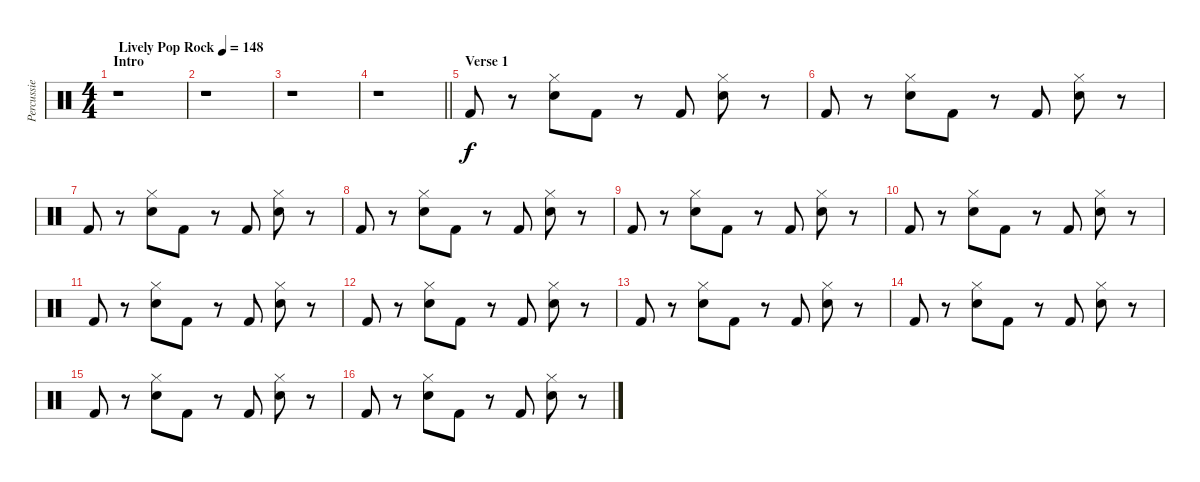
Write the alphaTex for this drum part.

\track ("Percussie" "Percussie") {instrument percussion}
\staff {score}
\articulation defaults
\ts (4 4)
\section ("" "Intro")
\tempo (148 "Lively Pop Rock")
\clef neutral
\ks c
r.1{dy f} |
r.1 |
r.1 |
\barLineRight lightlight
r.1 |
\section ("" "Verse 1")
"Kick (hit) 2".8 r.8 ("Hi-Hat (closed)" "Electric Snare (hit)").8 "Kick (hit) 2".8 r.8 "Kick (hit) 2".8 ("Hi-Hat (closed)" "Electric Snare (hit)").8 r.8 |
"Kick (hit) 2".8 r.8 ("Hi-Hat (closed)" "Electric Snare (hit)").8 "Kick (hit) 2".8 r.8 "Kick (hit) 2".8 ("Hi-Hat (closed)" "Electric Snare (hit)").8 r.8 |
"Kick (hit) 2".8 r.8 ("Hi-Hat (closed)" "Electric Snare (hit)").8 "Kick (hit) 2".8 r.8 "Kick (hit) 2".8 ("Hi-Hat (closed)" "Electric Snare (hit)").8 r.8 |
"Kick (hit) 2".8 r.8 ("Hi-Hat (closed)" "Electric Snare (hit)").8 "Kick (hit) 2".8 r.8 "Kick (hit) 2".8 ("Hi-Hat (closed)" "Electric Snare (hit)").8 r.8 |
"Kick (hit) 2".8 r.8 ("Hi-Hat (closed)" "Electric Snare (hit)").8 "Kick (hit) 2".8 r.8 "Kick (hit) 2".8 ("Hi-Hat (closed)" "Electric Snare (hit)").8 r.8 |
"Kick (hit) 2".8 r.8 ("Hi-Hat (closed)" "Electric Snare (hit)").8 "Kick (hit) 2".8 r.8 "Kick (hit) 2".8 ("Hi-Hat (closed)" "Electric Snare (hit)").8 r.8 |
"Kick (hit) 2".8 r.8 ("Hi-Hat (closed)" "Electric Snare (hit)").8 "Kick (hit) 2".8 r.8 "Kick (hit) 2".8 ("Hi-Hat (closed)" "Electric Snare (hit)").8 r.8 |
"Kick (hit) 2".8 r.8 ("Hi-Hat (closed)" "Electric Snare (hit)").8 "Kick (hit) 2".8 r.8 "Kick (hit) 2".8 ("Hi-Hat (closed)" "Electric Snare (hit)").8 r.8 |
"Kick (hit) 2".8 r.8 ("Hi-Hat (closed)" "Electric Snare (hit)").8 "Kick (hit) 2".8 r.8 "Kick (hit) 2".8 ("Hi-Hat (closed)" "Electric Snare (hit)").8 r.8 |
"Kick (hit) 2".8 r.8 ("Hi-Hat (closed)" "Electric Snare (hit)").8 "Kick (hit) 2".8 r.8 "Kick (hit) 2".8 ("Hi-Hat (closed)" "Electric Snare (hit)").8 r.8 |
"Kick (hit) 2".8 r.8 ("Hi-Hat (closed)" "Electric Snare (hit)").8 "Kick (hit) 2".8 r.8 "Kick (hit) 2".8 ("Hi-Hat (closed)" "Electric Snare (hit)").8 r.8 |
"Kick (hit) 2".8 r.8 ("Hi-Hat (closed)" "Electric Snare (hit)").8 "Kick (hit) 2".8 r.8 "Kick (hit) 2".8 ("Hi-Hat (closed)" "Electric Snare (hit)").8 r.8
